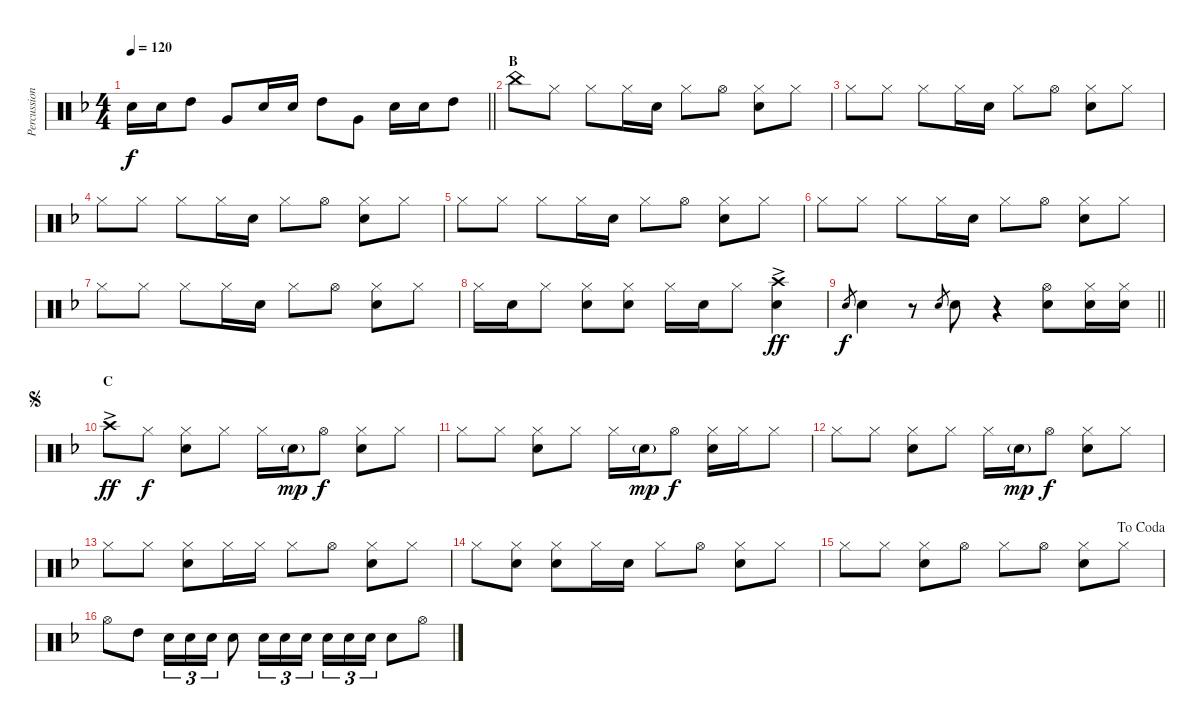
\track ("Percussion hand" "Percussion") {instrument percussion}
\staff {score}
\articulation defaults
\ts (4 4)
\tempo 120
\clef neutral
\barLineRight lightlight
\ks f "Snare (hit) 2".16{dy f} "Snare (hit) 2".16 "High Tom (hit)".8 "Very Low Tom (hit)".8 "Snare (hit) 2".16 "Snare (hit) 2".16 "High Tom (hit)".8 "Very Low Tom (hit)".8 "Snare (hit) 2".16 "Snare (hit) 2".16 "High Tom (hit)".8
|
\section ("" "B")
"China (hit)".8 "Hi-Hat (closed)".8 "Hi-Hat (closed)".8 "Hi-Hat (closed)".16 "Snare (hit) 2".16 "Hi-Hat (closed)".8 "Hi-Hat (open)".8 ("Hi-Hat (closed)" "Snare (hit) 2").8 "Hi-Hat (closed)".8 |
"Hi-Hat (closed)".8 "Hi-Hat (closed)".8 "Hi-Hat (closed)".8 "Hi-Hat (closed)".16 "Snare (hit) 2".16 "Hi-Hat (closed)".8 "Hi-Hat (open)".8 ("Hi-Hat (closed)" "Snare (hit) 2").8 "Hi-Hat (closed)".8 |
"Hi-Hat (closed)".8 "Hi-Hat (closed)".8 "Hi-Hat (closed)".8 "Hi-Hat (closed)".16 "Snare (hit) 2".16 "Hi-Hat (closed)".8 "Hi-Hat (open)".8 ("Hi-Hat (closed)" "Snare (hit) 2").8 "Hi-Hat (closed)".8 |
"Hi-Hat (closed)".8 "Hi-Hat (closed)".8 "Hi-Hat (closed)".8 "Hi-Hat (closed)".16 "Snare (hit) 2".16 "Hi-Hat (closed)".8 "Hi-Hat (open)".8 ("Hi-Hat (closed)" "Snare (hit) 2").8 "Hi-Hat (closed)".8 |
"Hi-Hat (closed)".8 "Hi-Hat (closed)".8 "Hi-Hat (closed)".8 "Hi-Hat (closed)".16 "Snare (hit) 2".16 "Hi-Hat (closed)".8 "Hi-Hat (open)".8 ("Hi-Hat (closed)" "Snare (hit) 2").8 "Hi-Hat (closed)".8 |
"Hi-Hat (closed)".8 "Hi-Hat (closed)".8 "Hi-Hat (closed)".8 "Hi-Hat (closed)".16 "Snare (hit) 2".16 "Hi-Hat (closed)".8 "Hi-Hat (open)".8 ("Hi-Hat (closed)" "Snare (hit) 2").8 "Hi-Hat (closed)".8 |
"Hi-Hat (closed)".16 "Snare (hit) 2".16 "Hi-Hat (closed)".8 ("Hi-Hat (closed)" "Snare (hit) 2").8 ("Hi-Hat (closed)" "Snare (hit) 2").8 "Hi-Hat (closed)".16 "Snare (hit) 2".16 "Hi-Hat (closed)".8 ("Crash high (hit)"{ac} "Snare (hit) 2").4{dy ff} |
\barLineRight lightlight "Snare (hit) 2".8{gr dy f} "Snare (hit) 2".4
r.8 "Snare (hit) 2".8{gr} "Snare (hit) 2".8 r.4 ("Hi-Hat (open)" "Snare (hit) 2").8 ("Hi-Hat (closed)" "Snare (hit) 2").16 ("Hi-Hat (closed)" "Snare (hit) 2").16 |
\section ("" "C")
\jump segno "Crash high (hit)"{ac}.8{dy ff} "Hi-Hat (closed)".8{dy f}
("Hi-Hat (closed)" "Snare (hit) 2").8 "Hi-Hat (closed)".8 "Hi-Hat (closed)".16 "Snare (hit) 2"{g}.16{dy mp} "Hi-Hat (open)".8{dy f} ("Hi-Hat (closed)" "Snare (hit) 2").8 "Hi-Hat (closed)".8 |
"Hi-Hat (closed)".8 "Hi-Hat (closed)".8 ("Hi-Hat (closed)" "Snare (hit) 2").8 "Hi-Hat (closed)".8 "Hi-Hat (closed)".16 "Snare (hit) 2"{g}.16{dy mp} "Hi-Hat (open)".8{dy f} ("Hi-Hat (closed)" "Snare (hit) 2").16 "Hi-Hat (closed)".16 "Hi-Hat (closed)".8 |
"Hi-Hat (closed)".8 "Hi-Hat (closed)".8 ("Hi-Hat (closed)" "Snare (hit) 2").8 "Hi-Hat (closed)".8 "Hi-Hat (closed)".16 "Snare (hit) 2"{g}.16{dy mp} "Hi-Hat (open)".8{dy f} ("Hi-Hat (closed)" "Snare (hit) 2").8 "Hi-Hat (closed)".8 |
"Hi-Hat (closed)".8 "Hi-Hat (closed)".8 ("Hi-Hat (closed)" "Snare (hit) 2").8 "Hi-Hat (closed)".16 "Hi-Hat (closed)".16 "Hi-Hat (closed)".8 "Hi-Hat (open)".8 ("Hi-Hat (closed)" "Snare (hit) 2").8 "Hi-Hat (closed)".8 |
"Hi-Hat (closed)".8 ("Snare (hit) 2" "Hi-Hat (closed)").8 ("Hi-Hat (closed)" "Snare (hit) 2").8 "Hi-Hat (closed)".16 "Snare (hit) 2".16 "Hi-Hat (closed)".8 "Hi-Hat (open)".8 ("Hi-Hat (closed)" "Snare (hit) 2").8 "Hi-Hat (closed)".8 |
\jump dacoda "Hi-Hat (closed)".8 "Hi-Hat (closed)".8
("Hi-Hat (closed)" "Snare (hit) 2").8 "Hi-Hat (open)".8 "Hi-Hat (closed)".8 "Hi-Hat (open)".8 ("Hi-Hat (closed)" "Snare (hit) 2").8 "Hi-Hat (closed)".8 |
"Hi-Hat (open)".8 "High Tom (hit)".8 "Snare (hit) 2".16{tu (3 2)} "Snare (hit) 2".16{tu (3 2)} "Snare (hit) 2".16{tu (3 2)} "Snare (hit) 2".8 "Snare (hit) 2".16{tu (3 2)} "Snare (hit) 2".16{tu (3 2)} "Snare (hit) 2".16{tu (3 2) beam splitsecondary} "Snare (hit) 2".16{tu (3 2)} "Snare (hit) 2".16{tu (3 2)} "Snare (hit) 2".16{tu (3 2)} "Snare (hit) 2".8 "Hi-Hat (open)".8
